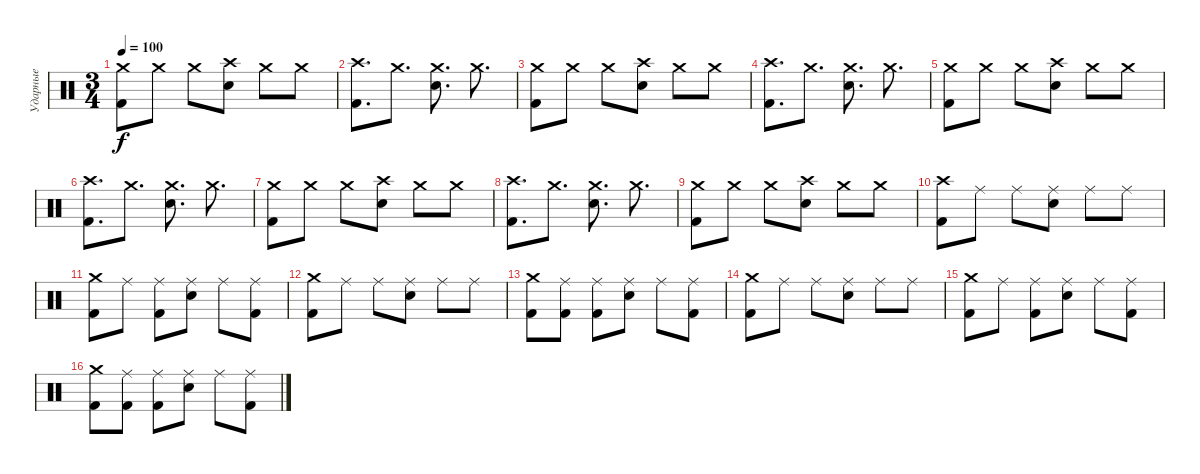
\track ("Ударные" "Ударные") {instrument percussion}
\staff {score}
\articulation defaults
\ts (3 4)
\tempo 100
\clef neutral
\ks c
("Crash medium (hit)" "Kick (hit) 2").8{dy f} "Crash medium (hit)".8 "Crash medium (hit)".8 ("Crash high (hit)" "Electric Snare (hit)").8 "Crash medium (hit)".8 "Crash medium (hit)".8 |
("Crash high (hit)" "Kick (hit) 2").8{d} "Crash medium (hit)".8{d} ("Crash medium (hit)" "Electric Snare (hit)").8{d} "Crash medium (hit)".8{d} |
("Crash medium (hit)" "Kick (hit) 2").8 "Crash medium (hit)".8 "Crash medium (hit)".8 ("Crash high (hit)" "Electric Snare (hit)").8 "Crash medium (hit)".8 "Crash medium (hit)".8 |
("Crash high (hit)" "Kick (hit) 2").8{d} "Crash medium (hit)".8{d} ("Crash medium (hit)" "Electric Snare (hit)").8{d} "Crash medium (hit)".8{d} |
("Crash medium (hit)" "Kick (hit) 2").8 "Crash medium (hit)".8 "Crash medium (hit)".8 ("Crash high (hit)" "Electric Snare (hit)").8 "Crash medium (hit)".8 "Crash medium (hit)".8 |
("Crash high (hit)" "Kick (hit) 2").8{d} "Crash medium (hit)".8{d} ("Crash medium (hit)" "Electric Snare (hit)").8{d} "Crash medium (hit)".8{d} |
("Crash medium (hit)" "Kick (hit) 2").8 "Crash medium (hit)".8 "Crash medium (hit)".8 ("Crash high (hit)" "Electric Snare (hit)").8 "Crash medium (hit)".8 "Crash medium (hit)".8 |
("Crash high (hit)" "Kick (hit) 2").8{d} "Crash medium (hit)".8{d} ("Crash medium (hit)" "Electric Snare (hit)").8{d} "Crash medium (hit)".8{d} |
("Crash medium (hit)" "Kick (hit) 2").8 "Crash medium (hit)".8 "Crash medium (hit)".8 ("Crash high (hit)" "Electric Snare (hit)").8 "Crash medium (hit)".8 "Crash medium (hit)".8 |
("Crash high (hit)" "Kick (hit) 2").8 "Ride (middle)".8 "Ride (middle)".8 ("Ride (middle)" "Electric Snare (hit)").8 "Ride (middle)".8 "Ride (middle)".8 |
("Crash medium (hit)" "Kick (hit) 2").8 "Ride (middle)".8 ("Ride (middle)" "Kick (hit) 2").8 ("Ride (middle)" "Electric Snare (hit)").8 "Ride (middle)".8 ("Ride (middle)" "Kick (hit) 2").8 |
("Crash medium (hit)" "Kick (hit) 2").8 "Ride (middle)".8 "Ride (middle)".8 ("Ride (middle)" "Electric Snare (hit)").8 "Ride (middle)".8 "Ride (middle)".8 |
("Crash medium (hit)" "Kick (hit) 2").8 ("Ride (middle)" "Kick (hit) 2").8 ("Ride (middle)" "Kick (hit) 2").8 ("Ride (middle)" "Electric Snare (hit)").8 "Ride (middle)".8 ("Ride (middle)" "Kick (hit) 2").8 |
("Crash medium (hit)" "Kick (hit) 2").8 "Ride (middle)".8 "Ride (middle)".8 ("Ride (middle)" "Electric Snare (hit)").8 "Ride (middle)".8 "Ride (middle)".8 |
("Crash medium (hit)" "Kick (hit) 2").8 "Ride (middle)".8 ("Ride (middle)" "Kick (hit) 2").8 ("Ride (middle)" "Electric Snare (hit)").8 "Ride (middle)".8 ("Ride (middle)" "Kick (hit) 2").8 |
("Crash medium (hit)" "Kick (hit) 2").8 ("Ride (middle)" "Kick (hit) 2").8 ("Ride (middle)" "Kick (hit) 2").8 ("Ride (middle)" "Electric Snare (hit)").8 "Ride (middle)".8 ("Ride (middle)" "Kick (hit) 2").8
